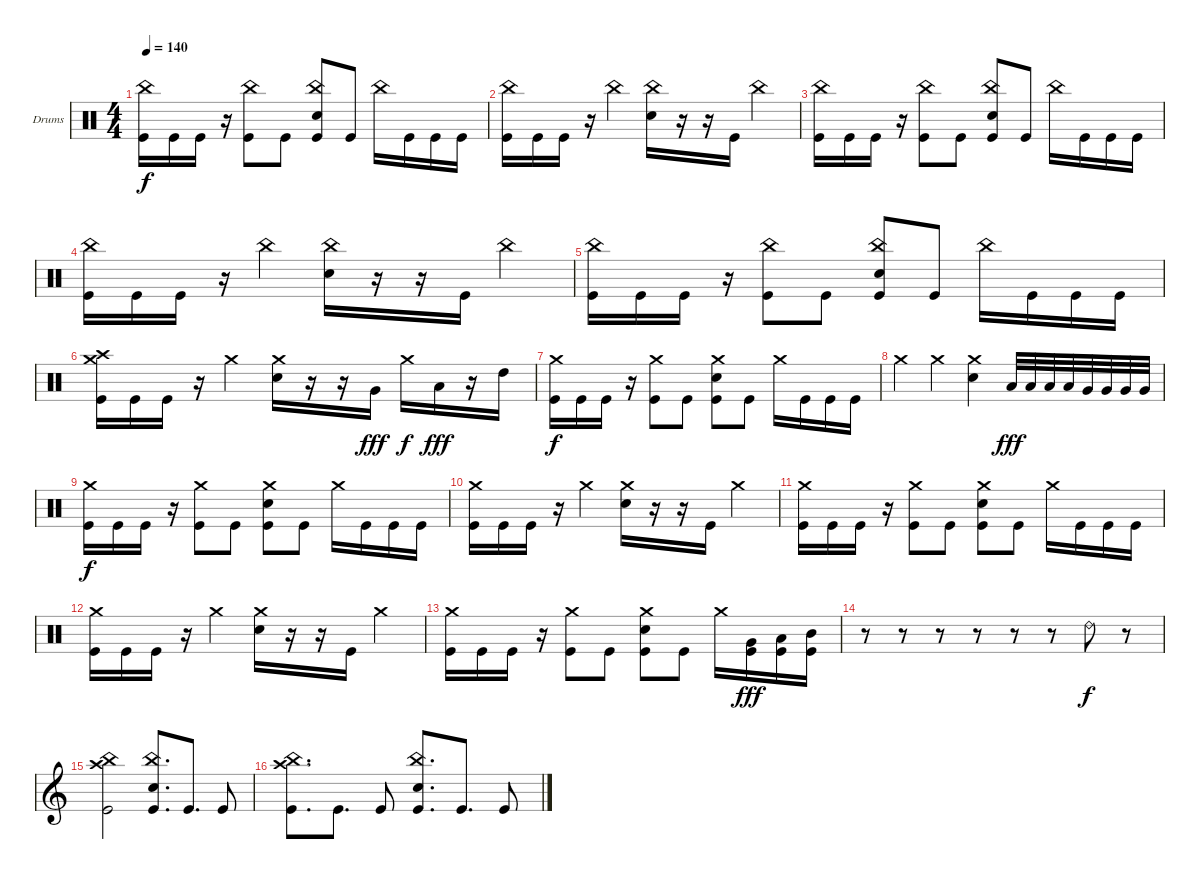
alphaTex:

\defaultSystemsLayout 4
\bracketExtendMode groupsimilarinstruments
\firstSystemTrackNameOrientation horizontal
\otherSystemsTrackNameOrientation horizontal
\track ("Drumkit" "Drums") {instrument percussion}
\staff {score}
\articulation defaults
\ts (4 4)
\tempo 140
\clef neutral
\scale
0.333333
\ks c
("Kick (hit)" "China (hit)").16{dy f} "Kick (hit)".16 "Kick (hit)".16 r.16 ("Kick (hit)" "China (hit)").8 "Kick (hit)".8 ("Kick (hit)" "China (hit)" "Snare (hit) 2").8 "Kick (hit)".8 "China (hit)".16 "Kick (hit)".16 "Kick (hit)".16 "Kick (hit)".16 |
\scale
0.333333 ("Kick (hit)" "China (hit)").16 "Kick (hit)".16 "Kick (hit)".16 r.16 "China (hit)".4 ("China (hit)" "Snare (hit) 2").16 r.16 r.16 "Kick (hit)".16 "China (hit)".4 |
\scale
0.333333 ("Kick (hit)" "China (hit)").16 "Kick (hit)".16 "Kick (hit)".16 r.16 ("Kick (hit)" "China (hit)").8 "Kick (hit)".8 ("Kick (hit)" "China (hit)" "Snare (hit) 2").8 "Kick (hit)".8 "China (hit)".16 "Kick (hit)".16 "Kick (hit)".16 "Kick (hit)".16 |
\scale
0.333333 ("Kick (hit)" "China (hit)").16 "Kick (hit)".16 "Kick (hit)".16 r.16 "China (hit)".4 ("China (hit)" "Snare (hit) 2").16 r.16 r.16 "Kick (hit)".16 "China (hit)".4 |
\scale
0.333333 ("Kick (hit)" "China (hit)").16 "Kick (hit)".16 "Kick (hit)".16 r.16 ("Kick (hit)" "China (hit)").8 "Kick (hit)".8 ("Kick (hit)" "China (hit)" "Snare (hit) 2").8 "Kick (hit)".8 "China (hit)".16 "Kick (hit)".16 "Kick (hit)".16 "Kick (hit)".16 |
\scale
0.333333 ("Kick (hit)" "Crash medium (hit)" "Crash high (hit)").16 "Kick (hit)".16 "Kick (hit)".16 r.16 "Crash medium (hit)".4 ("Snare (hit) 2" "Crash medium (hit)").16 r.16 r.16 "Very Low Tom (hit)".16{dy fff} "Crash medium (hit)".16{dy f} "Low Tom (hit)".16{dy fff} r.16 "High Tom (hit)".16 |
\scale
0.333333 ("Kick (hit)" "Crash medium (hit)").16{dy f} "Kick (hit)".16 "Kick (hit)".16 r.16 ("Kick (hit)" "Crash medium (hit)").8 "Kick (hit)".8 ("Kick (hit)" "Snare (hit) 2" "Crash medium (hit)").8 "Kick (hit)".8 "Crash medium (hit)".16 "Kick (hit)".16 "Kick (hit)".16 "Kick (hit)".16 |
\scale
0.333333 "Crash medium (hit)".4 "Crash medium (hit)".4 ("Snare (hit) 2" "Crash medium (hit)").4 "Low Tom (hit)".32{dy fff} "Low Tom (hit)".32 "Low Tom (hit)".32 "Low Tom (hit)".32 "Very Low Tom (hit)".32 "Very Low Tom (hit)".32 "Very Low Tom (hit)".32 "Very Low Tom (hit)".32 |
\scale
0.333333 ("Kick (hit)" "Crash medium (hit)").16{dy f} "Kick (hit)".16 "Kick (hit)".16 r.16 ("Kick (hit)" "Crash medium (hit)").8 "Kick (hit)".8 ("Kick (hit)" "Snare (hit) 2" "Crash medium (hit)").8 "Kick (hit)".8 "Crash medium (hit)".16 "Kick (hit)".16 "Kick (hit)".16 "Kick (hit)".16 |
\scale
0.333333 ("Kick (hit)" "Crash medium (hit)").16 "Kick (hit)".16 "Kick (hit)".16 r.16 "Crash medium (hit)".4 ("Snare (hit) 2" "Crash medium (hit)").16 r.16 r.16 "Kick (hit)".16 "Crash medium (hit)".4 |
\scale
0.333333 ("Kick (hit)" "Crash medium (hit)").16 "Kick (hit)".16 "Kick (hit)".16 r.16 ("Kick (hit)" "Crash medium (hit)").8 "Kick (hit)".8 ("Kick (hit)" "Snare (hit) 2" "Crash medium (hit)").8 "Kick (hit)".8 "Crash medium (hit)".16 "Kick (hit)".16 "Kick (hit)".16 "Kick (hit)".16 |
\scale
0.333333 ("Kick (hit)" "Crash medium (hit)").16 "Kick (hit)".16 "Kick (hit)".16 r.16 "Crash medium (hit)".4 ("Snare (hit) 2" "Crash medium (hit)").16 r.16 r.16 "Kick (hit)".16 "Crash medium (hit)".4 |
\scale
0.333333 ("Kick (hit)" "Crash medium (hit)").16 "Kick (hit)".16 "Kick (hit)".16 r.16 ("Kick (hit)" "Crash medium (hit)").8 "Kick (hit)".8 ("Kick (hit)" "Snare (hit) 2" "Crash medium (hit)").8 "Kick (hit)".8 "Crash medium (hit)".16 ("Kick (hit)" "Very Low Tom (hit)").16{dy fff} ("Kick (hit)" "Low Tom (hit)").16 ("Kick (hit)" "Mid Tom (hit)").16 |
\scale
0.333333 r.8 r.8 r.8 r.8 r.8 r.8 "Ride (bell) 2".8{dy f} r.8 |
\clef g2
\scale
0.333333 ("Kick (hit)" "China (hit)" "Crash high (hit)").2 ("Kick (hit)" "Snare (hit) 2" "China (hit)").8{d} "Kick (hit)".8{d} "Kick (hit)".8 |
\scale
0.333333 ("Kick (hit)" "China (hit)" "Crash high (hit)").8{d} "Kick (hit)".8{d} "Kick (hit)".8 ("Kick (hit)" "Snare (hit) 2" "China (hit)").8{d} "Kick (hit)".8{d} "Kick (hit)".8
